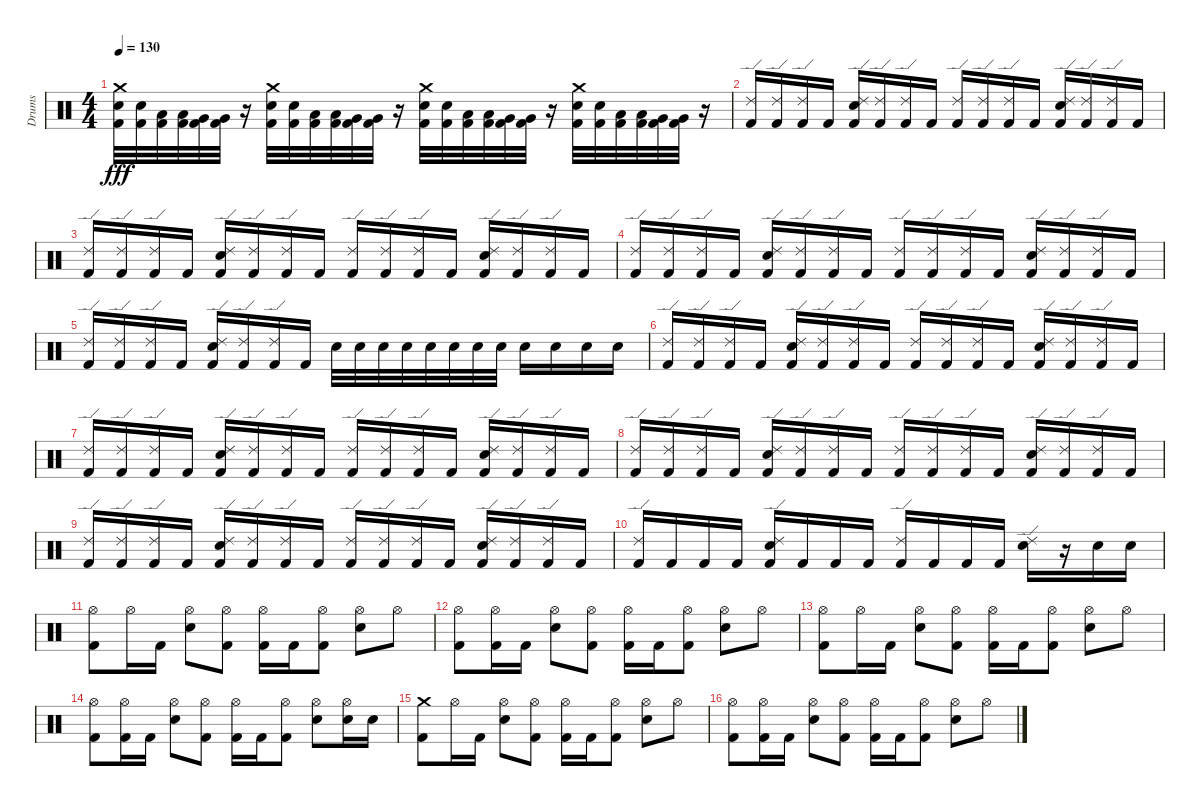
\track ("Drums" "Drums") {instrument percussion}
\staff {score}
\articulation defaults
\ts (4 4)
\tempo 130
\clef neutral
\ks c
("Crash medium (hit)" "Kick (hit) 2" "Electric Snare (hit)").32{dy fff} ("Kick (hit) 2" "Electric Snare (hit)").32 ("Kick (hit) 2" "Low Tom (hit)").32 ("Kick (hit) 2" "Low Tom (hit)").32 ("Kick (hit) 2" "Very Low Tom (hit)").32 ("Kick (hit) 2" "Very Low Tom (hit)").32 r.16 ("Crash medium (hit)" "Kick (hit) 2" "Electric Snare (hit)").32 ("Kick (hit) 2" "Electric Snare (hit)").32 ("Kick (hit) 2" "Low Tom (hit)").32 ("Kick (hit) 2" "Low Tom (hit)").32 ("Kick (hit) 2" "Very Low Tom (hit)").32 ("Kick (hit) 2" "Very Low Tom (hit)").32 r.16 ("Crash medium (hit)" "Kick (hit) 2" "Electric Snare (hit)").32 ("Kick (hit) 2" "Electric Snare (hit)").32 ("Kick (hit) 2" "Low Tom (hit)").32 ("Kick (hit) 2" "Low Tom (hit)").32 ("Kick (hit) 2" "Very Low Tom (hit)").32 ("Kick (hit) 2" "Very Low Tom (hit)").32 r.16 ("Crash medium (hit)" "Kick (hit) 2" "Electric Snare (hit)").32 ("Kick (hit) 2" "Electric Snare (hit)").32 ("Kick (hit) 2" "Low Tom (hit)").32 ("Kick (hit) 2" "Low Tom (hit)").32 ("Kick (hit) 2" "Very Low Tom (hit)").32 ("Kick (hit) 2" "Very Low Tom (hit)").32 r.16 |
("Ride (edge) 2" "Kick (hit) 2").16 ("Ride (edge) 2" "Kick (hit) 2").16 ("Ride (edge) 2" "Kick (hit) 2").16 "Kick (hit) 2".16 ("Ride (edge) 2" "Kick (hit) 2" "Electric Snare (hit)").16 ("Ride (edge) 2" "Kick (hit) 2").16 ("Ride (edge) 2" "Kick (hit) 2").16 "Kick (hit) 2".16 ("Ride (edge) 2" "Kick (hit) 2").16 ("Ride (edge) 2" "Kick (hit) 2").16 ("Ride (edge) 2" "Kick (hit) 2").16 "Kick (hit) 2".16 ("Electric Snare (hit)" "Ride (edge) 2" "Kick (hit) 2").16 ("Ride (edge) 2" "Kick (hit) 2").16 ("Ride (edge) 2" "Kick (hit) 2").16 "Kick (hit) 2".16 |
("Ride (edge) 2" "Kick (hit) 2").16 ("Ride (edge) 2" "Kick (hit) 2").16 ("Ride (edge) 2" "Kick (hit) 2").16 "Kick (hit) 2".16 ("Electric Snare (hit)" "Ride (edge) 2" "Kick (hit) 2").16 ("Ride (edge) 2" "Kick (hit) 2").16 ("Ride (edge) 2" "Kick (hit) 2").16 "Kick (hit) 2".16 ("Ride (edge) 2" "Kick (hit) 2").16 ("Ride (edge) 2" "Kick (hit) 2").16 ("Ride (edge) 2" "Kick (hit) 2").16 "Kick (hit) 2".16 ("Electric Snare (hit)" "Ride (edge) 2" "Kick (hit) 2").16 ("Ride (edge) 2" "Kick (hit) 2").16 ("Ride (edge) 2" "Kick (hit) 2").16 "Kick (hit) 2".16 |
("Ride (edge) 2" "Kick (hit) 2").16 ("Ride (edge) 2" "Kick (hit) 2").16 ("Ride (edge) 2" "Kick (hit) 2").16 "Kick (hit) 2".16 ("Ride (edge) 2" "Kick (hit) 2" "Electric Snare (hit)").16 ("Ride (edge) 2" "Kick (hit) 2").16 ("Ride (edge) 2" "Kick (hit) 2").16 "Kick (hit) 2".16 ("Ride (edge) 2" "Kick (hit) 2").16 ("Ride (edge) 2" "Kick (hit) 2").16 ("Ride (edge) 2" "Kick (hit) 2").16 "Kick (hit) 2".16 ("Electric Snare (hit)" "Ride (edge) 2" "Kick (hit) 2").16 ("Ride (edge) 2" "Kick (hit) 2").16 ("Ride (edge) 2" "Kick (hit) 2").16 "Kick (hit) 2".16 |
("Ride (edge) 2" "Kick (hit) 2").16 ("Ride (edge) 2" "Kick (hit) 2").16 ("Ride (edge) 2" "Kick (hit) 2").16 "Kick (hit) 2".16 ("Electric Snare (hit)" "Ride (edge) 2" "Kick (hit) 2").16 ("Ride (edge) 2" "Kick (hit) 2").16 ("Ride (edge) 2" "Kick (hit) 2").16 "Kick (hit) 2".16 "Electric Snare (hit)".32 "Electric Snare (hit)".32 "Electric Snare (hit)".32 "Electric Snare (hit)".32 "Electric Snare (hit)".32 "Electric Snare (hit)".32 "Electric Snare (hit)".32 "Electric Snare (hit)".32 "Electric Snare (hit)".16 "Electric Snare (hit)".16 "Electric Snare (hit)".16 "Electric Snare (hit)".16 |
("Ride (edge) 2" "Kick (hit) 2").16 ("Ride (edge) 2" "Kick (hit) 2").16 ("Ride (edge) 2" "Kick (hit) 2").16 "Kick (hit) 2".16 ("Ride (edge) 2" "Kick (hit) 2" "Electric Snare (hit)").16 ("Ride (edge) 2" "Kick (hit) 2").16 ("Ride (edge) 2" "Kick (hit) 2").16 "Kick (hit) 2".16 ("Ride (edge) 2" "Kick (hit) 2").16 ("Ride (edge) 2" "Kick (hit) 2").16 ("Ride (edge) 2" "Kick (hit) 2").16 "Kick (hit) 2".16 ("Electric Snare (hit)" "Ride (edge) 2" "Kick (hit) 2").16 ("Ride (edge) 2" "Kick (hit) 2").16 ("Ride (edge) 2" "Kick (hit) 2").16 "Kick (hit) 2".16 |
("Ride (edge) 2" "Kick (hit) 2").16 ("Ride (edge) 2" "Kick (hit) 2").16 ("Ride (edge) 2" "Kick (hit) 2").16 "Kick (hit) 2".16 ("Electric Snare (hit)" "Ride (edge) 2" "Kick (hit) 2").16 ("Ride (edge) 2" "Kick (hit) 2").16 ("Ride (edge) 2" "Kick (hit) 2").16 "Kick (hit) 2".16 ("Ride (edge) 2" "Kick (hit) 2").16 ("Ride (edge) 2" "Kick (hit) 2").16 ("Ride (edge) 2" "Kick (hit) 2").16 "Kick (hit) 2".16 ("Electric Snare (hit)" "Ride (edge) 2" "Kick (hit) 2").16 ("Ride (edge) 2" "Kick (hit) 2").16 ("Ride (edge) 2" "Kick (hit) 2").16 "Kick (hit) 2".16 |
("Ride (edge) 2" "Kick (hit) 2").16 ("Ride (edge) 2" "Kick (hit) 2").16 ("Ride (edge) 2" "Kick (hit) 2").16 "Kick (hit) 2".16 ("Ride (edge) 2" "Kick (hit) 2" "Electric Snare (hit)").16 ("Ride (edge) 2" "Kick (hit) 2").16 ("Ride (edge) 2" "Kick (hit) 2").16 "Kick (hit) 2".16 ("Ride (edge) 2" "Kick (hit) 2").16 ("Ride (edge) 2" "Kick (hit) 2").16 ("Ride (edge) 2" "Kick (hit) 2").16 "Kick (hit) 2".16 ("Electric Snare (hit)" "Ride (edge) 2" "Kick (hit) 2").16 ("Ride (edge) 2" "Kick (hit) 2").16 ("Ride (edge) 2" "Kick (hit) 2").16 "Kick (hit) 2".16 |
("Ride (edge) 2" "Kick (hit) 2").16 ("Ride (edge) 2" "Kick (hit) 2").16 ("Ride (edge) 2" "Kick (hit) 2").16 "Kick (hit) 2".16 ("Electric Snare (hit)" "Ride (edge) 2" "Kick (hit) 2").16 ("Ride (edge) 2" "Kick (hit) 2").16 ("Ride (edge) 2" "Kick (hit) 2").16 "Kick (hit) 2".16 ("Ride (edge) 2" "Kick (hit) 2").16 ("Ride (edge) 2" "Kick (hit) 2").16 ("Ride (edge) 2" "Kick (hit) 2").16 "Kick (hit) 2".16 ("Electric Snare (hit)" "Ride (edge) 2" "Kick (hit) 2").16 ("Ride (edge) 2" "Kick (hit) 2").16 ("Ride (edge) 2" "Kick (hit) 2").16 "Kick (hit) 2".16 |
("Ride (edge) 2" "Kick (hit) 2").16 "Kick (hit) 2".16 "Kick (hit) 2".16 "Kick (hit) 2".16 ("Electric Snare (hit)" "Ride (edge) 2" "Kick (hit) 2").16 "Kick (hit) 2".16 "Kick (hit) 2".16 "Kick (hit) 2".16 ("Ride (edge) 2" "Kick (hit) 2").16 "Kick (hit) 2".16 "Kick (hit) 2".16 "Kick (hit) 2".16 ("Ride (edge) 2" "Electric Snare (hit)").16 r.16 "Electric Snare (hit)".16 "Electric Snare (hit)".16 |
("Kick (hit) 2" "Hi-Hat (open)").8 "Hi-Hat (open)".16 "Kick (hit) 2".16 ("Electric Snare (hit)" "Hi-Hat (open)").8 ("Kick (hit) 2" "Hi-Hat (open)").8 ("Kick (hit) 2" "Hi-Hat (open)").16 "Kick (hit) 2".16 ("Kick (hit) 2" "Hi-Hat (open)").8 ("Electric Snare (hit)" "Hi-Hat (open)").8 "Hi-Hat (open)".8 |
("Hi-Hat (open)" "Kick (hit) 2").8 ("Hi-Hat (open)" "Kick (hit) 2").16 "Kick (hit) 2".16 ("Hi-Hat (open)" "Electric Snare (hit)").8 ("Hi-Hat (open)" "Kick (hit) 2").8 ("Hi-Hat (open)" "Kick (hit) 2").16 "Kick (hit) 2".16 ("Hi-Hat (open)" "Kick (hit) 2").8 ("Hi-Hat (open)" "Electric Snare (hit)").8 "Hi-Hat (open)".8 |
("Kick (hit) 2" "Hi-Hat (open)").8 "Hi-Hat (open)".16 "Kick (hit) 2".16 ("Electric Snare (hit)" "Hi-Hat (open)").8 ("Kick (hit) 2" "Hi-Hat (open)").8 ("Kick (hit) 2" "Hi-Hat (open)").16 "Kick (hit) 2".16 ("Kick (hit) 2" "Hi-Hat (open)").8 ("Electric Snare (hit)" "Hi-Hat (open)").8 "Hi-Hat (open)".8 |
("Hi-Hat (open)" "Kick (hit) 2").8 ("Hi-Hat (open)" "Kick (hit) 2").16 "Kick (hit) 2".16 ("Hi-Hat (open)" "Electric Snare (hit)").8 ("Hi-Hat (open)" "Kick (hit) 2").8 ("Hi-Hat (open)" "Kick (hit) 2").16 "Kick (hit) 2".16 ("Hi-Hat (open)" "Kick (hit) 2").8 ("Hi-Hat (open)" "Electric Snare (hit)").8 ("Electric Snare (hit)" "Hi-Hat (open)").16 "Electric Snare (hit)".16 |
("Kick (hit) 2" "Crash medium (hit)").8 "Hi-Hat (open)".16 "Kick (hit) 2".16 ("Electric Snare (hit)" "Hi-Hat (open)").8 ("Kick (hit) 2" "Hi-Hat (open)").8 ("Kick (hit) 2" "Hi-Hat (open)").16 "Kick (hit) 2".16 ("Kick (hit) 2" "Hi-Hat (open)").8 ("Electric Snare (hit)" "Hi-Hat (open)").8 "Hi-Hat (open)".8 |
("Hi-Hat (open)" "Kick (hit) 2").8 ("Hi-Hat (open)" "Kick (hit) 2").16 "Kick (hit) 2".16 ("Hi-Hat (open)" "Electric Snare (hit)").8 ("Hi-Hat (open)" "Kick (hit) 2").8 ("Hi-Hat (open)" "Kick (hit) 2").16 "Kick (hit) 2".16 ("Hi-Hat (open)" "Kick (hit) 2").8 ("Hi-Hat (open)" "Electric Snare (hit)").8 "Hi-Hat (open)".8
